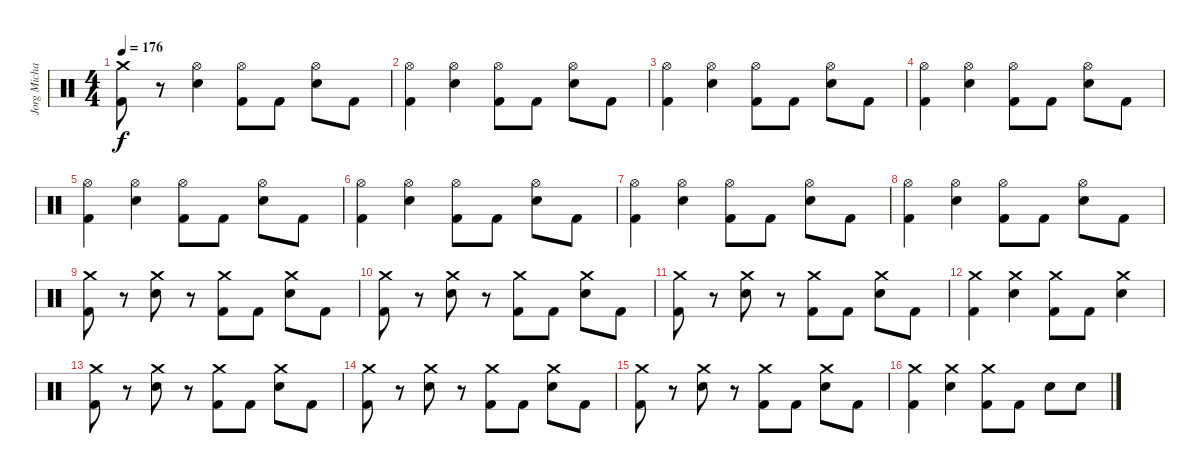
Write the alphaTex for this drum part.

\track ("Jorg Michael" "Jorg Micha") {instrument percussion}
\staff {score}
\articulation defaults
\ts (4 4)
\tempo 176
\clef neutral
\ks c
("Kick (hit) 2" "Crash medium (hit)").8{dy f} r.8 ("Snare (hit) 2" "Hi-Hat (open)").4 ("Kick (hit) 2" "Hi-Hat (open)").8 "Kick (hit) 2".8 ("Snare (hit) 2" "Hi-Hat (open)").8 "Kick (hit) 2".8 |
("Kick (hit) 2" "Hi-Hat (open)").4 ("Snare (hit) 2" "Hi-Hat (open)").4 ("Kick (hit) 2" "Hi-Hat (open)").8 "Kick (hit) 2".8 ("Snare (hit) 2" "Hi-Hat (open)").8 "Kick (hit) 2".8 |
("Kick (hit) 2" "Hi-Hat (open)").4 ("Snare (hit) 2" "Hi-Hat (open)").4 ("Kick (hit) 2" "Hi-Hat (open)").8 "Kick (hit) 2".8 ("Snare (hit) 2" "Hi-Hat (open)").8 "Kick (hit) 2".8 |
("Kick (hit) 2" "Hi-Hat (open)").4 ("Snare (hit) 2" "Hi-Hat (open)").4 ("Kick (hit) 2" "Hi-Hat (open)").8 "Kick (hit) 2".8 ("Snare (hit) 2" "Hi-Hat (open)").8 "Kick (hit) 2".8 |
("Kick (hit) 2" "Hi-Hat (open)").4 ("Snare (hit) 2" "Hi-Hat (open)").4 ("Kick (hit) 2" "Hi-Hat (open)").8 "Kick (hit) 2".8 ("Snare (hit) 2" "Hi-Hat (open)").8 "Kick (hit) 2".8 |
("Kick (hit) 2" "Hi-Hat (open)").4 ("Snare (hit) 2" "Hi-Hat (open)").4 ("Kick (hit) 2" "Hi-Hat (open)").8 "Kick (hit) 2".8 ("Snare (hit) 2" "Hi-Hat (open)").8 "Kick (hit) 2".8 |
("Kick (hit) 2" "Hi-Hat (open)").4 ("Snare (hit) 2" "Hi-Hat (open)").4 ("Kick (hit) 2" "Hi-Hat (open)").8 "Kick (hit) 2".8 ("Snare (hit) 2" "Hi-Hat (open)").8 "Kick (hit) 2".8 |
("Kick (hit) 2" "Hi-Hat (open)").4 ("Snare (hit) 2" "Hi-Hat (open)").4 ("Kick (hit) 2" "Hi-Hat (open)").8 "Kick (hit) 2".8 ("Snare (hit) 2" "Hi-Hat (open)").8 "Kick (hit) 2".8 |
("Crash medium (hit)" "Kick (hit) 2").8 r.8 ("Crash medium (hit)" "Snare (hit) 2").8 r.8 ("Crash medium (hit)" "Kick (hit) 2").8 "Kick (hit) 2".8 ("Crash medium (hit)" "Snare (hit) 2").8 "Kick (hit) 2".8 |
("Crash medium (hit)" "Kick (hit) 2").8 r.8 ("Crash medium (hit)" "Snare (hit) 2").8 r.8 ("Crash medium (hit)" "Kick (hit) 2").8 "Kick (hit) 2".8 ("Crash medium (hit)" "Snare (hit) 2").8 "Kick (hit) 2".8 |
("Crash medium (hit)" "Kick (hit) 2").8 r.8 ("Crash medium (hit)" "Snare (hit) 2").8 r.8 ("Crash medium (hit)" "Kick (hit) 2").8 "Kick (hit) 2".8 ("Crash medium (hit)" "Snare (hit) 2").8 "Kick (hit) 2".8 |
("Kick (hit) 2" "Crash medium (hit)").4 ("Snare (hit) 2" "Crash medium (hit)").4 ("Kick (hit) 2" "Crash medium (hit)").8 "Kick (hit) 2".8 ("Snare (hit) 2" "Crash medium (hit)").4 |
("Crash medium (hit)" "Kick (hit) 2").8 r.8 ("Crash medium (hit)" "Snare (hit) 2").8 r.8 ("Crash medium (hit)" "Kick (hit) 2").8 "Kick (hit) 2".8 ("Crash medium (hit)" "Snare (hit) 2").8 "Kick (hit) 2".8 |
("Crash medium (hit)" "Kick (hit) 2").8 r.8 ("Crash medium (hit)" "Snare (hit) 2").8 r.8 ("Crash medium (hit)" "Kick (hit) 2").8 "Kick (hit) 2".8 ("Crash medium (hit)" "Snare (hit) 2").8 "Kick (hit) 2".8 |
("Crash medium (hit)" "Kick (hit) 2").8 r.8 ("Crash medium (hit)" "Snare (hit) 2").8 r.8 ("Crash medium (hit)" "Kick (hit) 2").8 "Kick (hit) 2".8 ("Crash medium (hit)" "Snare (hit) 2").8 "Kick (hit) 2".8 |
("Kick (hit) 2" "Crash medium (hit)").4 ("Snare (hit) 2" "Crash medium (hit)").4 ("Kick (hit) 2" "Crash medium (hit)").8 "Kick (hit) 2".8 "Snare (hit) 2".8 "Snare (hit) 2".8
